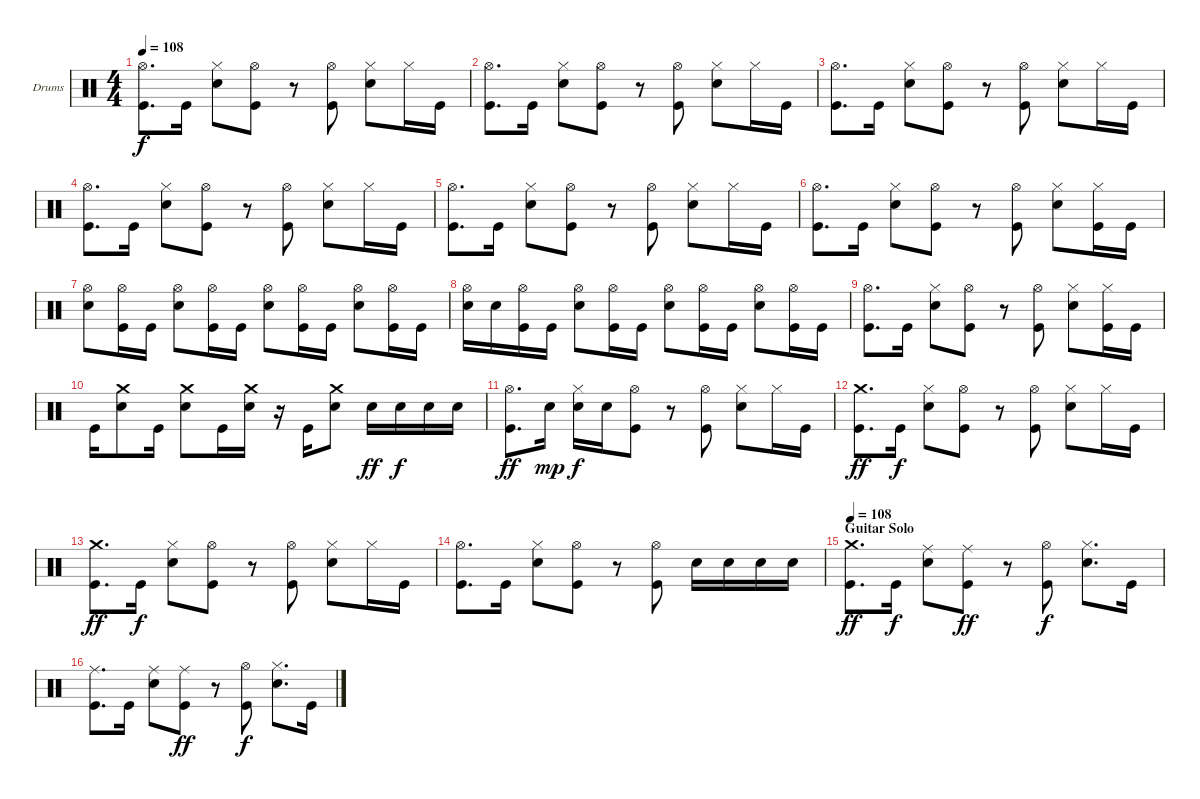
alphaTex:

\bracketExtendMode groupsimilarinstruments
\firstSystemTrackNameOrientation horizontal
\otherSystemsTrackNameOrientation horizontal
\track ("Drumkit" "Drums") {instrument percussion}
\staff {score}
\articulation defaults
\ts (4 4)
\tempo 108
\clef neutral
\ks c
("Hi-Hat (open)" "Kick (hit)").8{d dy f} "Kick (hit)".16 ("Hi-Hat (closed)" "Snare (hit) 2").8 ("Hi-Hat (open)" "Kick (hit)").8 r.8 ("Hi-Hat (open)" "Kick (hit)").8 ("Hi-Hat (closed)" "Snare (hit) 2").8 "Hi-Hat (closed)".16 "Kick (hit)".16 |
("Hi-Hat (open)" "Kick (hit)").8{d} "Kick (hit)".16 ("Hi-Hat (closed)" "Snare (hit) 2").8 ("Hi-Hat (open)" "Kick (hit)").8 r.8 ("Hi-Hat (open)" "Kick (hit)").8 ("Hi-Hat (closed)" "Snare (hit) 2").8 "Hi-Hat (closed)".16 "Kick (hit)".16 |
("Hi-Hat (open)" "Kick (hit)").8{d} "Kick (hit)".16 ("Hi-Hat (closed)" "Snare (hit) 2").8 ("Hi-Hat (open)" "Kick (hit)").8 r.8 ("Hi-Hat (open)" "Kick (hit)").8 ("Hi-Hat (closed)" "Snare (hit) 2").8 "Hi-Hat (closed)".16 "Kick (hit)".16 |
("Hi-Hat (open)" "Kick (hit)").8{d} "Kick (hit)".16 ("Hi-Hat (closed)" "Snare (hit) 2").8 ("Hi-Hat (open)" "Kick (hit)").8 r.8 ("Hi-Hat (open)" "Kick (hit)").8 ("Hi-Hat (closed)" "Snare (hit) 2").8 "Hi-Hat (closed)".16 "Kick (hit)".16 |
("Hi-Hat (open)" "Kick (hit)").8{d} "Kick (hit)".16 ("Hi-Hat (closed)" "Snare (hit) 2").8 ("Hi-Hat (open)" "Kick (hit)").8 r.8 ("Hi-Hat (open)" "Kick (hit)").8 ("Hi-Hat (closed)" "Snare (hit) 2").8 "Hi-Hat (closed)".16 "Kick (hit)".16 |
("Hi-Hat (open)" "Kick (hit)").8{d} "Kick (hit)".16 ("Hi-Hat (closed)" "Snare (hit) 2").8 ("Hi-Hat (open)" "Kick (hit)").8 r.8 ("Hi-Hat (open)" "Kick (hit)").8 ("Hi-Hat (closed)" "Snare (hit) 2").8 ("Hi-Hat (closed)" "Kick (hit)").16 "Kick (hit)".16 |
("Hi-Hat (open)" "Snare (hit) 2").8 ("Hi-Hat (open)" "Kick (hit)").16 "Kick (hit)".16 ("Hi-Hat (open)" "Snare (hit) 2").8 ("Hi-Hat (open)" "Kick (hit)").16 "Kick (hit)".16 ("Hi-Hat (open)" "Snare (hit) 2").8 ("Hi-Hat (open)" "Kick (hit)").16 "Kick (hit)".16 ("Hi-Hat (open)" "Snare (hit) 2").8 ("Hi-Hat (open)" "Kick (hit)").16 "Kick (hit)".16 |
("Hi-Hat (open)" "Snare (hit) 2").16 "Snare (hit) 2".16 ("Hi-Hat (open)" "Kick (hit)").16 "Kick (hit)".16 ("Hi-Hat (open)" "Snare (hit) 2").8 ("Hi-Hat (open)" "Kick (hit)").16 "Kick (hit)".16 ("Hi-Hat (open)" "Snare (hit) 2").8 ("Hi-Hat (open)" "Kick (hit)").16 "Kick (hit)".16 ("Hi-Hat (open)" "Snare (hit) 2").8 ("Hi-Hat (open)" "Kick (hit)").16 "Kick (hit)".16 |
("Hi-Hat (open)" "Kick (hit)").8{d} "Kick (hit)".16 ("Hi-Hat (closed)" "Snare (hit) 2").8 ("Hi-Hat (open)" "Kick (hit)").8 r.8 ("Hi-Hat (open)" "Kick (hit)").8 ("Hi-Hat (closed)" "Snare (hit) 2").8 ("Hi-Hat (closed)" "Kick (hit)").16 "Kick (hit)".16 |
"Kick (hit)".16 ("Crash medium (hit)" "Snare (hit) 2").8 "Kick (hit)".16 ("Crash medium (hit)" "Snare (hit) 2").8 "Kick (hit)".16 ("Crash medium (hit)" "Snare (hit) 2").16 r.16 "Kick (hit)".16 ("Crash medium (hit)" "Snare (hit) 2").8 "Snare (hit) 2".16{dy ff} "Snare (hit) 2".16{dy f} "Snare (hit) 2".16 "Snare (hit) 2".16 |
("Hi-Hat (open)" "Kick (hit)").8{d dy ff} "Snare (hit) 2".16{dy mp} ("Hi-Hat (closed)" "Snare (hit) 2").16{dy f} "Snare (hit) 2".16 ("Hi-Hat (open)" "Kick (hit)").8 r.8 ("Hi-Hat (open)" "Kick (hit)").8 ("Hi-Hat (closed)" "Snare (hit) 2").8 "Hi-Hat (closed)".16 "Kick (hit)".16 |
("Crash medium (hit)" "Kick (hit)").8{d dy ff} "Kick (hit)".16{dy f} ("Hi-Hat (closed)" "Snare (hit) 2").8 ("Hi-Hat (open)" "Kick (hit)").8 r.8 ("Hi-Hat (open)" "Kick (hit)").8 ("Hi-Hat (closed)" "Snare (hit) 2").8 "Hi-Hat (closed)".16 "Kick (hit)".16 |
("Crash medium (hit)" "Kick (hit)").8{d dy ff} "Kick (hit)".16{dy f} ("Hi-Hat (closed)" "Snare (hit) 2").8 ("Hi-Hat (open)" "Kick (hit)").8 r.8 ("Hi-Hat (open)" "Kick (hit)").8 ("Hi-Hat (closed)" "Snare (hit) 2").8 "Hi-Hat (closed)".16 "Kick (hit)".16 |
("Hi-Hat (open)" "Kick (hit)").8{d} "Kick (hit)".16 ("Hi-Hat (closed)" "Snare (hit) 2").8 ("Hi-Hat (open)" "Kick (hit)").8 r.8 ("Hi-Hat (open)" "Kick (hit)").8 "Snare (hit) 2".16 "Snare (hit) 2".16 "Snare (hit) 2".16 "Snare (hit) 2".16 |
\section ("" "Guitar Solo")
\tempo 108
("Crash medium (hit)" "Kick (hit)").8{d dy ff} "Kick (hit)".16{dy f} ("Ride (middle)" "Snare (hit) 2").8 ("Ride (middle)" "Kick (hit)").8{dy ff} r.8 ("Hi-Hat (open)" "Kick (hit)").8{dy f} ("Hi-Hat (closed)" "Snare (hit) 2").8{d} "Kick (hit)".16 |
("Ride (middle)" "Kick (hit)").8{d} "Kick (hit)".16 ("Ride (middle)" "Snare (hit) 2").8 ("Ride (middle)" "Kick (hit)").8{dy ff} r.8 ("Hi-Hat (open)" "Kick (hit)").8{dy f} ("Hi-Hat (closed)" "Snare (hit) 2").8{d} "Kick (hit)".16
